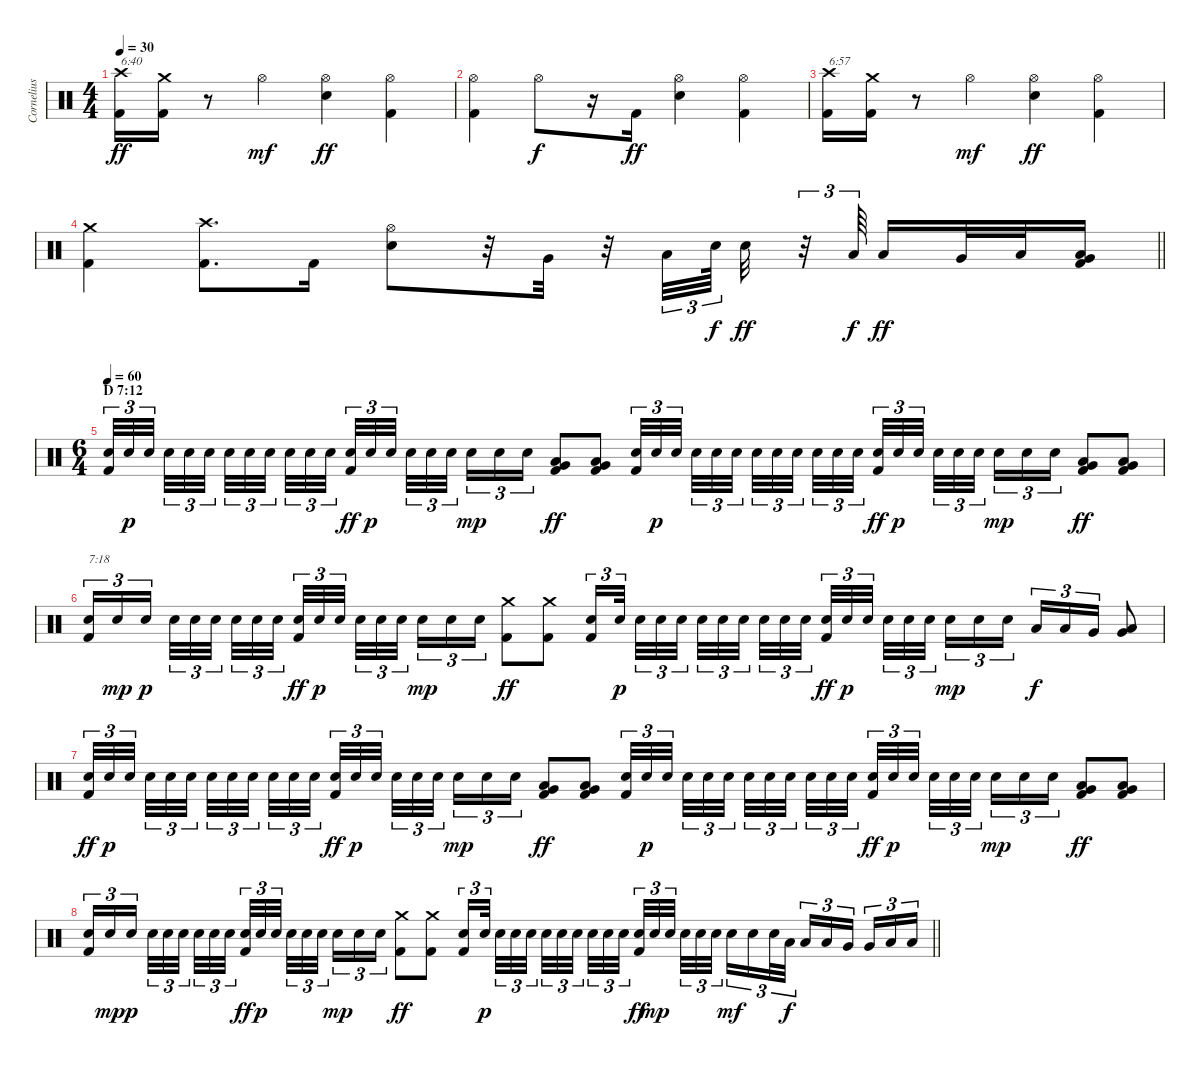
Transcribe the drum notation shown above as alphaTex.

\track ("Cornelius Althammer (Drums)" "Cornelius ") {instrument percussion}
\staff {score}
\articulation defaults
\ts (4 4)
\tempo 30
\clef neutral
\ks c
("Crash high (hit)" "Kick (hit) 2").16{txt "6:40" dy ff} ("Crash medium (hit)" "Kick (hit) 2").16 r.8 "Hi-Hat (open)".4{dy mf} ("Hi-Hat (open)" "Electric Snare (hit)").4{dy ff} ("Hi-Hat (open)" "Kick (hit) 2").4 |
("Hi-Hat (open)" "Kick (hit) 2").4 "Hi-Hat (open)".8{dy f} r.16 "Kick (hit) 2".16{dy ff} ("Hi-Hat (open)" "Electric Snare (hit)").4 ("Hi-Hat (open)" "Kick (hit) 2").4 |
("Crash high (hit)" "Kick (hit) 2").16{txt "6:57"} ("Crash medium (hit)" "Kick (hit) 2").16 r.8 "Hi-Hat (open)".4{dy mf} ("Hi-Hat (open)" "Electric Snare (hit)").4{dy ff} ("Hi-Hat (open)" "Kick (hit) 2").4 |
\barLineRight lightlight
("Crash medium (hit)" "Kick (hit) 2").4 ("Crash high (hit)" "Kick (hit) 2").8{d} "Kick (hit) 2".16 ("Hi-Hat (open)" "Electric Snare (hit)").8 r.32 "Very Low Tom (hit)".32 r.32 "Low Tom (hit)".32{tu (3 2)} "Electric Snare (hit)".64{tu (3 2) dy f} "Electric Snare (hit)".32{dy ff} r.32{tu (3 2)} "Low Tom (hit)".64{tu (3 2) dy f beam splitsecondary} "Low Tom (hit)".16{dy ff} "Very Low Tom (hit)".32 "Low Floor Tom (hit)".32 ("Low Floor Tom (hit)" "Very Low Tom (hit)" "Kick (hit) 2").16 |
\ts (6 4)
\section ("" "D 7:12")
\tempo 60
("Electric Snare (hit)" "Kick (hit) 2").32{tu (3 2)} "Electric Snare (hit)".32{tu (3 2) dy p} "Electric Snare (hit)".32{tu (3 2) beam splitsecondary} "Electric Snare (hit)".32{tu (3 2)} "Electric Snare (hit)".32{tu (3 2)} "Electric Snare (hit)".32{tu (3 2) beam splitsecondary} "Electric Snare (hit)".32{tu (3 2)} "Electric Snare (hit)".32{tu (3 2)} "Electric Snare (hit)".32{tu (3 2) beam splitsecondary} "Electric Snare (hit)".32{tu (3 2)} "Electric Snare (hit)".32{tu (3 2)} "Electric Snare (hit)".32{tu (3 2) beam splitsecondary} ("Electric Snare (hit)" "Kick (hit) 2").32{tu (3 2) dy ff} "Electric Snare (hit)".32{tu (3 2) dy p} "Electric Snare (hit)".32{tu (3 2) beam splitsecondary} "Electric Snare (hit)".32{tu (3 2)} "Electric Snare (hit)".32{tu (3 2)} "Electric Snare (hit)".32{tu (3 2) beam splitsecondary} "Electric Snare (hit)".16{tu (3 2) dy mp} "Electric Snare (hit)".16{tu (3 2)} "Electric Snare (hit)".16{tu (3 2)} ("Very Low Tom (hit)" "Low Floor Tom (hit)" "Kick (hit) 2").8{dy ff} ("Very Low Tom (hit)" "Low Floor Tom (hit)" "Kick (hit) 2").8 ("Electric Snare (hit)" "Kick (hit) 2").32{tu (3 2)} "Electric Snare (hit)".32{tu (3 2) dy p} "Electric Snare (hit)".32{tu (3 2) beam splitsecondary} "Electric Snare (hit)".32{tu (3 2)} "Electric Snare (hit)".32{tu (3 2)} "Electric Snare (hit)".32{tu (3 2) beam splitsecondary} "Electric Snare (hit)".32{tu (3 2)} "Electric Snare (hit)".32{tu (3 2)} "Electric Snare (hit)".32{tu (3 2) beam splitsecondary} "Electric Snare (hit)".32{tu (3 2)} "Electric Snare (hit)".32{tu (3 2)} "Electric Snare (hit)".32{tu (3 2) beam splitsecondary} ("Electric Snare (hit)" "Kick (hit) 2").32{tu (3 2) dy ff} "Electric Snare (hit)".32{tu (3 2) dy p} "Electric Snare (hit)".32{tu (3 2) beam splitsecondary} "Electric Snare (hit)".32{tu (3 2)} "Electric Snare (hit)".32{tu (3 2)} "Electric Snare (hit)".32{tu (3 2) beam splitsecondary} "Electric Snare (hit)".16{tu (3 2) dy mp} "Electric Snare (hit)".16{tu (3 2)} "Electric Snare (hit)".16{tu (3 2)} ("Very Low Tom (hit)" "Low Floor Tom (hit)" "Kick (hit) 2").8{dy ff} ("Very Low Tom (hit)" "Low Floor Tom (hit)" "Kick (hit) 2").8 |
("Electric Snare (hit)" "Kick (hit) 2").16{tu (3 2) txt "7:18"} "Electric Snare (hit)".16{tu (3 2) dy mp} "Electric Snare (hit)".16{tu (3 2) dy p beam splitsecondary} "Electric Snare (hit)".32{tu (3 2)} "Electric Snare (hit)".32{tu (3 2)} "Electric Snare (hit)".32{tu (3 2) beam splitsecondary} "Electric Snare (hit)".32{tu (3 2)} "Electric Snare (hit)".32{tu (3 2)} "Electric Snare (hit)".32{tu (3 2) beam splitsecondary} ("Electric Snare (hit)" "Kick (hit) 2").32{tu (3 2) dy ff} "Electric Snare (hit)".32{tu (3 2) dy p} "Electric Snare (hit)".32{tu (3 2) beam splitsecondary} "Electric Snare (hit)".32{tu (3 2)} "Electric Snare (hit)".32{tu (3 2)} "Electric Snare (hit)".32{tu (3 2) beam splitsecondary} "Electric Snare (hit)".16{tu (3 2) dy mp} "Electric Snare (hit)".16{tu (3 2)} "Electric Snare (hit)".16{tu (3 2)} ("Crash medium (hit)" "Kick (hit) 2").8{dy ff} ("Crash medium (hit)" "Kick (hit) 2").8 ("Electric Snare (hit)" "Kick (hit) 2").16{tu (3 2)} "Electric Snare (hit)".32{tu (3 2) dy p beam splitsecondary} "Electric Snare (hit)".32{tu (3 2)} "Electric Snare (hit)".32{tu (3 2)} "Electric Snare (hit)".32{tu (3 2) beam splitsecondary} "Electric Snare (hit)".32{tu (3 2)} "Electric Snare (hit)".32{tu (3 2)} "Electric Snare (hit)".32{tu (3 2) beam splitsecondary} "Electric Snare (hit)".32{tu (3 2)} "Electric Snare (hit)".32{tu (3 2)} "Electric Snare (hit)".32{tu (3 2) beam splitsecondary} ("Electric Snare (hit)" "Kick (hit) 2").32{tu (3 2) dy ff} "Electric Snare (hit)".32{tu (3 2) dy p} "Electric Snare (hit)".32{tu (3 2) beam splitsecondary} "Electric Snare (hit)".32{tu (3 2)} "Electric Snare (hit)".32{tu (3 2)} "Electric Snare (hit)".32{tu (3 2) beam splitsecondary} "Electric Snare (hit)".16{tu (3 2) dy mp} "Electric Snare (hit)".16{tu (3 2)} "Electric Snare (hit)".16{tu (3 2) beam splitsecondary} "Low Tom (hit)".16{tu (3 2) dy f} "Low Tom (hit)".16{tu (3 2)} "Very Low Tom (hit)".16{tu (3 2)} ("Very Low Tom (hit)" "Low Floor Tom (hit)").8 |
("Electric Snare (hit)" "Kick (hit) 2").32{tu (3 2) dy ff} "Electric Snare (hit)".32{tu (3 2) dy p} "Electric Snare (hit)".32{tu (3 2) beam splitsecondary} "Electric Snare (hit)".32{tu (3 2)} "Electric Snare (hit)".32{tu (3 2)} "Electric Snare (hit)".32{tu (3 2) beam splitsecondary} "Electric Snare (hit)".32{tu (3 2)} "Electric Snare (hit)".32{tu (3 2)} "Electric Snare (hit)".32{tu (3 2) beam splitsecondary} "Electric Snare (hit)".32{tu (3 2)} "Electric Snare (hit)".32{tu (3 2)} "Electric Snare (hit)".32{tu (3 2) beam splitsecondary} ("Electric Snare (hit)" "Kick (hit) 2").32{tu (3 2) dy ff} "Electric Snare (hit)".32{tu (3 2) dy p} "Electric Snare (hit)".32{tu (3 2) beam splitsecondary} "Electric Snare (hit)".32{tu (3 2)} "Electric Snare (hit)".32{tu (3 2)} "Electric Snare (hit)".32{tu (3 2) beam splitsecondary} "Electric Snare (hit)".16{tu (3 2) dy mp} "Electric Snare (hit)".16{tu (3 2)} "Electric Snare (hit)".16{tu (3 2)} ("Very Low Tom (hit)" "Low Floor Tom (hit)" "Kick (hit) 2").8{dy ff} ("Very Low Tom (hit)" "Low Floor Tom (hit)" "Kick (hit) 2").8 ("Electric Snare (hit)" "Kick (hit) 2").32{tu (3 2)} "Electric Snare (hit)".32{tu (3 2) dy p} "Electric Snare (hit)".32{tu (3 2) beam splitsecondary} "Electric Snare (hit)".32{tu (3 2)} "Electric Snare (hit)".32{tu (3 2)} "Electric Snare (hit)".32{tu (3 2) beam splitsecondary} "Electric Snare (hit)".32{tu (3 2)} "Electric Snare (hit)".32{tu (3 2)} "Electric Snare (hit)".32{tu (3 2) beam splitsecondary} "Electric Snare (hit)".32{tu (3 2)} "Electric Snare (hit)".32{tu (3 2)} "Electric Snare (hit)".32{tu (3 2) beam splitsecondary} ("Electric Snare (hit)" "Kick (hit) 2").32{tu (3 2) dy ff} "Electric Snare (hit)".32{tu (3 2) dy p} "Electric Snare (hit)".32{tu (3 2) beam splitsecondary} "Electric Snare (hit)".32{tu (3 2)} "Electric Snare (hit)".32{tu (3 2)} "Electric Snare (hit)".32{tu (3 2) beam splitsecondary} "Electric Snare (hit)".16{tu (3 2) dy mp} "Electric Snare (hit)".16{tu (3 2)} "Electric Snare (hit)".16{tu (3 2)} ("Very Low Tom (hit)" "Low Floor Tom (hit)" "Kick (hit) 2").8{dy ff} ("Very Low Tom (hit)" "Low Floor Tom (hit)" "Kick (hit) 2").8 |
\barLineRight lightlight
("Electric Snare (hit)" "Kick (hit) 2").16{tu (3 2)} "Electric Snare (hit)".16{tu (3 2) dy mp} "Electric Snare (hit)".16{tu (3 2) dy p beam splitsecondary} "Electric Snare (hit)".32{tu (3 2)} "Electric Snare (hit)".32{tu (3 2)} "Electric Snare (hit)".32{tu (3 2) beam splitsecondary} "Electric Snare (hit)".32{tu (3 2)} "Electric Snare (hit)".32{tu (3 2)} "Electric Snare (hit)".32{tu (3 2) beam splitsecondary} ("Electric Snare (hit)" "Kick (hit) 2").32{tu (3 2) dy ff} "Electric Snare (hit)".32{tu (3 2) dy p} "Electric Snare (hit)".32{tu (3 2) beam splitsecondary} "Electric Snare (hit)".32{tu (3 2)} "Electric Snare (hit)".32{tu (3 2)} "Electric Snare (hit)".32{tu (3 2) beam splitsecondary} "Electric Snare (hit)".16{tu (3 2) dy mp} "Electric Snare (hit)".16{tu (3 2)} "Electric Snare (hit)".16{tu (3 2)} ("Crash medium (hit)" "Kick (hit) 2").8{dy ff} ("Crash medium (hit)" "Kick (hit) 2").8 ("Electric Snare (hit)" "Kick (hit) 2").16{tu (3 2)} "Electric Snare (hit)".32{tu (3 2) dy p beam splitsecondary} "Electric Snare (hit)".32{tu (3 2)} "Electric Snare (hit)".32{tu (3 2)} "Electric Snare (hit)".32{tu (3 2) beam splitsecondary} "Electric Snare (hit)".32{tu (3 2)} "Electric Snare (hit)".32{tu (3 2)} "Electric Snare (hit)".32{tu (3 2) beam splitsecondary} "Electric Snare (hit)".32{tu (3 2)} "Electric Snare (hit)".32{tu (3 2)} "Electric Snare (hit)".32{tu (3 2) beam splitsecondary} ("Electric Snare (hit)" "Kick (hit) 2").32{tu (3 2) dy ff} "Electric Snare (hit)".32{tu (3 2) dy mp} "Electric Snare (hit)".32{tu (3 2) beam splitsecondary} "Electric Snare (hit)".32{tu (3 2)} "Electric Snare (hit)".32{tu (3 2)} "Electric Snare (hit)".32{tu (3 2) beam splitsecondary} "Electric Snare (hit)".16{tu (3 2) dy mf} "Electric Snare (hit)".16{tu (3 2)} "Electric Snare (hit)".32{tu (3 2)} "Low Tom (hit)".32{tu (3 2) dy f beam splitsecondary} "Low Tom (hit)".16{tu (3 2)} "Low Tom (hit)".16{tu (3 2)} "Very Low Tom (hit)".16{tu (3 2) beam splitsecondary} "Very Low Tom (hit)".16{tu (3 2)} "Low Floor Tom (hit)".16{tu (3 2)} "Low Floor Tom (hit)".16{tu (3 2)}
